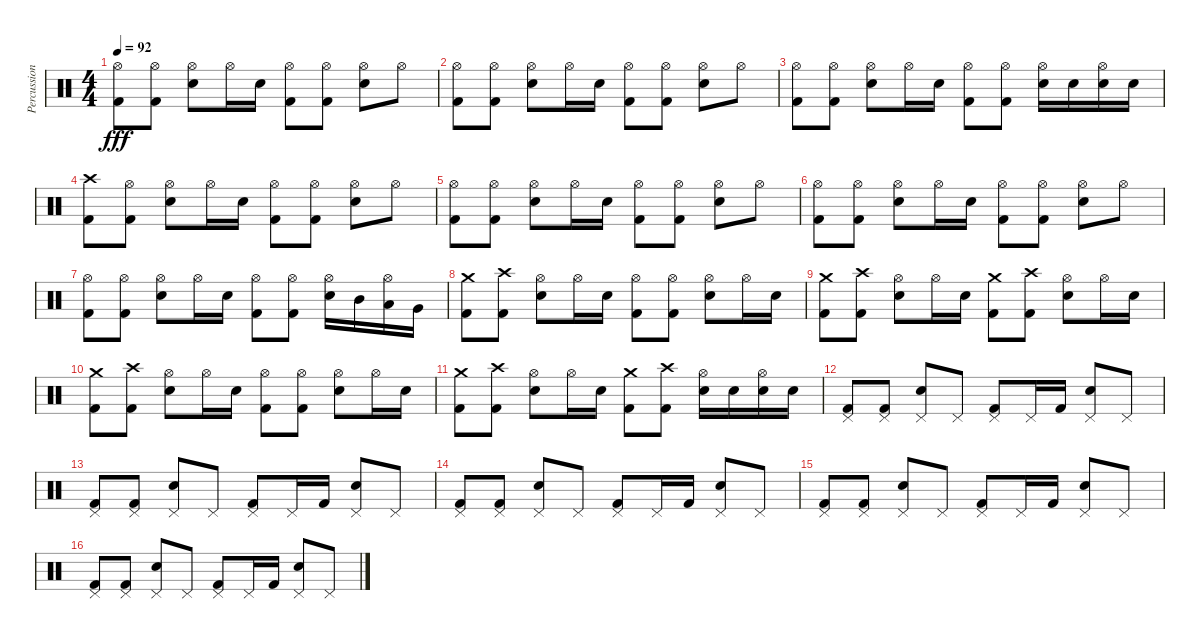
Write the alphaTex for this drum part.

\track ("Percussions" "Percussion") {instrument percussion}
\staff {score}
\articulation defaults
\ts (4 4)
\tempo 92
\clef neutral
\ks c
("Kick (hit) 2" "Hi-Hat (open)").8{dy fff} ("Kick (hit) 2" "Hi-Hat (open)").8 ("Snare (hit) 2" "Hi-Hat (open)").8 "Hi-Hat (open)".16 "Snare (hit) 2".16 ("Kick (hit) 2" "Hi-Hat (open)").8 ("Kick (hit) 2" "Hi-Hat (open)").8 ("Snare (hit) 2" "Hi-Hat (open)").8 "Hi-Hat (open)".8 |
("Kick (hit) 2" "Hi-Hat (open)").8 ("Kick (hit) 2" "Hi-Hat (open)").8 ("Snare (hit) 2" "Hi-Hat (open)").8 "Hi-Hat (open)".16 "Snare (hit) 2".16 ("Kick (hit) 2" "Hi-Hat (open)").8 ("Kick (hit) 2" "Hi-Hat (open)").8 ("Snare (hit) 2" "Hi-Hat (open)").8 "Hi-Hat (open)".8 |
("Kick (hit) 2" "Hi-Hat (open)").8 ("Kick (hit) 2" "Hi-Hat (open)").8 ("Snare (hit) 2" "Hi-Hat (open)").8 "Hi-Hat (open)".16 "Snare (hit) 2".16 ("Kick (hit) 2" "Hi-Hat (open)").8 ("Kick (hit) 2" "Hi-Hat (open)").8 ("Snare (hit) 2" "Hi-Hat (open)").16 "Snare (hit) 2".16 ("Snare (hit) 2" "Hi-Hat (open)").16 "Snare (hit) 2".16 |
("Kick (hit) 2" "Crash high (hit)").8 ("Kick (hit) 2" "Hi-Hat (open)").8 ("Snare (hit) 2" "Hi-Hat (open)").8 "Hi-Hat (open)".16 "Snare (hit) 2".16 ("Kick (hit) 2" "Hi-Hat (open)").8 ("Kick (hit) 2" "Hi-Hat (open)").8 ("Snare (hit) 2" "Hi-Hat (open)").8 "Hi-Hat (open)".8 |
("Kick (hit) 2" "Hi-Hat (open)").8 ("Kick (hit) 2" "Hi-Hat (open)").8 ("Snare (hit) 2" "Hi-Hat (open)").8 "Hi-Hat (open)".16 "Snare (hit) 2".16 ("Kick (hit) 2" "Hi-Hat (open)").8 ("Kick (hit) 2" "Hi-Hat (open)").8 ("Snare (hit) 2" "Hi-Hat (open)").8 "Hi-Hat (open)".8 |
("Kick (hit) 2" "Hi-Hat (open)").8 ("Kick (hit) 2" "Hi-Hat (open)").8 ("Snare (hit) 2" "Hi-Hat (open)").8 "Hi-Hat (open)".16 "Snare (hit) 2".16 ("Kick (hit) 2" "Hi-Hat (open)").8 ("Kick (hit) 2" "Hi-Hat (open)").8 ("Snare (hit) 2" "Hi-Hat (open)").8 "Hi-Hat (open)".8 |
("Kick (hit) 2" "Hi-Hat (open)").8 ("Kick (hit) 2" "Hi-Hat (open)").8 ("Snare (hit) 2" "Hi-Hat (open)").8 "Hi-Hat (open)".16 "Snare (hit) 2".16 ("Kick (hit) 2" "Hi-Hat (open)").8 ("Kick (hit) 2" "Hi-Hat (open)").8 ("Snare (hit) 2" "Hi-Hat (open)").16 "Mid Tom (hit)".16 ("Low Tom (hit)" "Hi-Hat (open)").16 "Very Low Tom (hit)".16 |
("Kick (hit) 2" "Crash medium (hit)").8 ("Kick (hit) 2" "Crash high (hit)").8 ("Snare (hit) 2" "Hi-Hat (open)").8 "Hi-Hat (open)".16 "Snare (hit) 2".16 ("Kick (hit) 2" "Hi-Hat (open)").8 ("Kick (hit) 2" "Hi-Hat (open)").8 ("Snare (hit) 2" "Hi-Hat (open)").8 "Hi-Hat (open)".16 "Snare (hit) 2".16 |
("Kick (hit) 2" "Crash medium (hit)").8 ("Kick (hit) 2" "Crash high (hit)").8 ("Snare (hit) 2" "Hi-Hat (open)").8 "Hi-Hat (open)".16 "Snare (hit) 2".16 ("Kick (hit) 2" "Crash medium (hit)").8 ("Kick (hit) 2" "Crash high (hit)").8 ("Snare (hit) 2" "Hi-Hat (open)").8 "Hi-Hat (open)".16 "Snare (hit) 2".16 |
("Kick (hit) 2" "Crash medium (hit)").8 ("Kick (hit) 2" "Crash high (hit)").8 ("Snare (hit) 2" "Hi-Hat (open)").8 "Hi-Hat (open)".16 "Snare (hit) 2".16 ("Kick (hit) 2" "Hi-Hat (open)").8 ("Kick (hit) 2" "Hi-Hat (open)").8 ("Snare (hit) 2" "Hi-Hat (open)").8 "Hi-Hat (open)".16 "Snare (hit) 2".16 |
("Kick (hit) 2" "Crash medium (hit)").8 ("Kick (hit) 2" "Crash high (hit)").8 ("Snare (hit) 2" "Hi-Hat (open)").8 "Hi-Hat (open)".16 "Snare (hit) 2".16 ("Kick (hit) 2" "Crash medium (hit)").8 ("Kick (hit) 2" "Crash high (hit)").8 ("Snare (hit) 2" "Hi-Hat (open)").16 "Snare (hit) 2".16 ("Snare (hit) 2" "Hi-Hat (open)").16 "Snare (hit) 2".16 |
("Kick (hit) 2" "Pedal Hi-Hat (hit)").8 ("Kick (hit) 2" "Pedal Hi-Hat (hit)").8 ("Snare (hit) 2" "Pedal Hi-Hat (hit)").8 "Pedal Hi-Hat (hit)".8 ("Kick (hit) 2" "Pedal Hi-Hat (hit)").8 "Pedal Hi-Hat (hit)".16 "Kick (hit) 2".16 ("Snare (hit) 2" "Pedal Hi-Hat (hit)").8 "Pedal Hi-Hat (hit)".8 |
("Kick (hit) 2" "Pedal Hi-Hat (hit)").8 ("Kick (hit) 2" "Pedal Hi-Hat (hit)").8 ("Snare (hit) 2" "Pedal Hi-Hat (hit)").8 "Pedal Hi-Hat (hit)".8 ("Kick (hit) 2" "Pedal Hi-Hat (hit)").8 "Pedal Hi-Hat (hit)".16 "Kick (hit) 2".16 ("Snare (hit) 2" "Pedal Hi-Hat (hit)").8 "Pedal Hi-Hat (hit)".8 |
("Kick (hit) 2" "Pedal Hi-Hat (hit)").8 ("Kick (hit) 2" "Pedal Hi-Hat (hit)").8 ("Snare (hit) 2" "Pedal Hi-Hat (hit)").8 "Pedal Hi-Hat (hit)".8 ("Kick (hit) 2" "Pedal Hi-Hat (hit)").8 "Pedal Hi-Hat (hit)".16 "Kick (hit) 2".16 ("Snare (hit) 2" "Pedal Hi-Hat (hit)").8 "Pedal Hi-Hat (hit)".8 |
("Kick (hit) 2" "Pedal Hi-Hat (hit)").8 ("Kick (hit) 2" "Pedal Hi-Hat (hit)").8 ("Snare (hit) 2" "Pedal Hi-Hat (hit)").8 "Pedal Hi-Hat (hit)".8 ("Kick (hit) 2" "Pedal Hi-Hat (hit)").8 "Pedal Hi-Hat (hit)".16 "Kick (hit) 2".16 ("Snare (hit) 2" "Pedal Hi-Hat (hit)").8 "Pedal Hi-Hat (hit)".8 |
("Kick (hit) 2" "Pedal Hi-Hat (hit)").8 ("Kick (hit) 2" "Pedal Hi-Hat (hit)").8 ("Snare (hit) 2" "Pedal Hi-Hat (hit)").8 "Pedal Hi-Hat (hit)".8 ("Kick (hit) 2" "Pedal Hi-Hat (hit)").8 "Pedal Hi-Hat (hit)".16 "Kick (hit) 2".16 ("Snare (hit) 2" "Pedal Hi-Hat (hit)").8 "Pedal Hi-Hat (hit)".8
